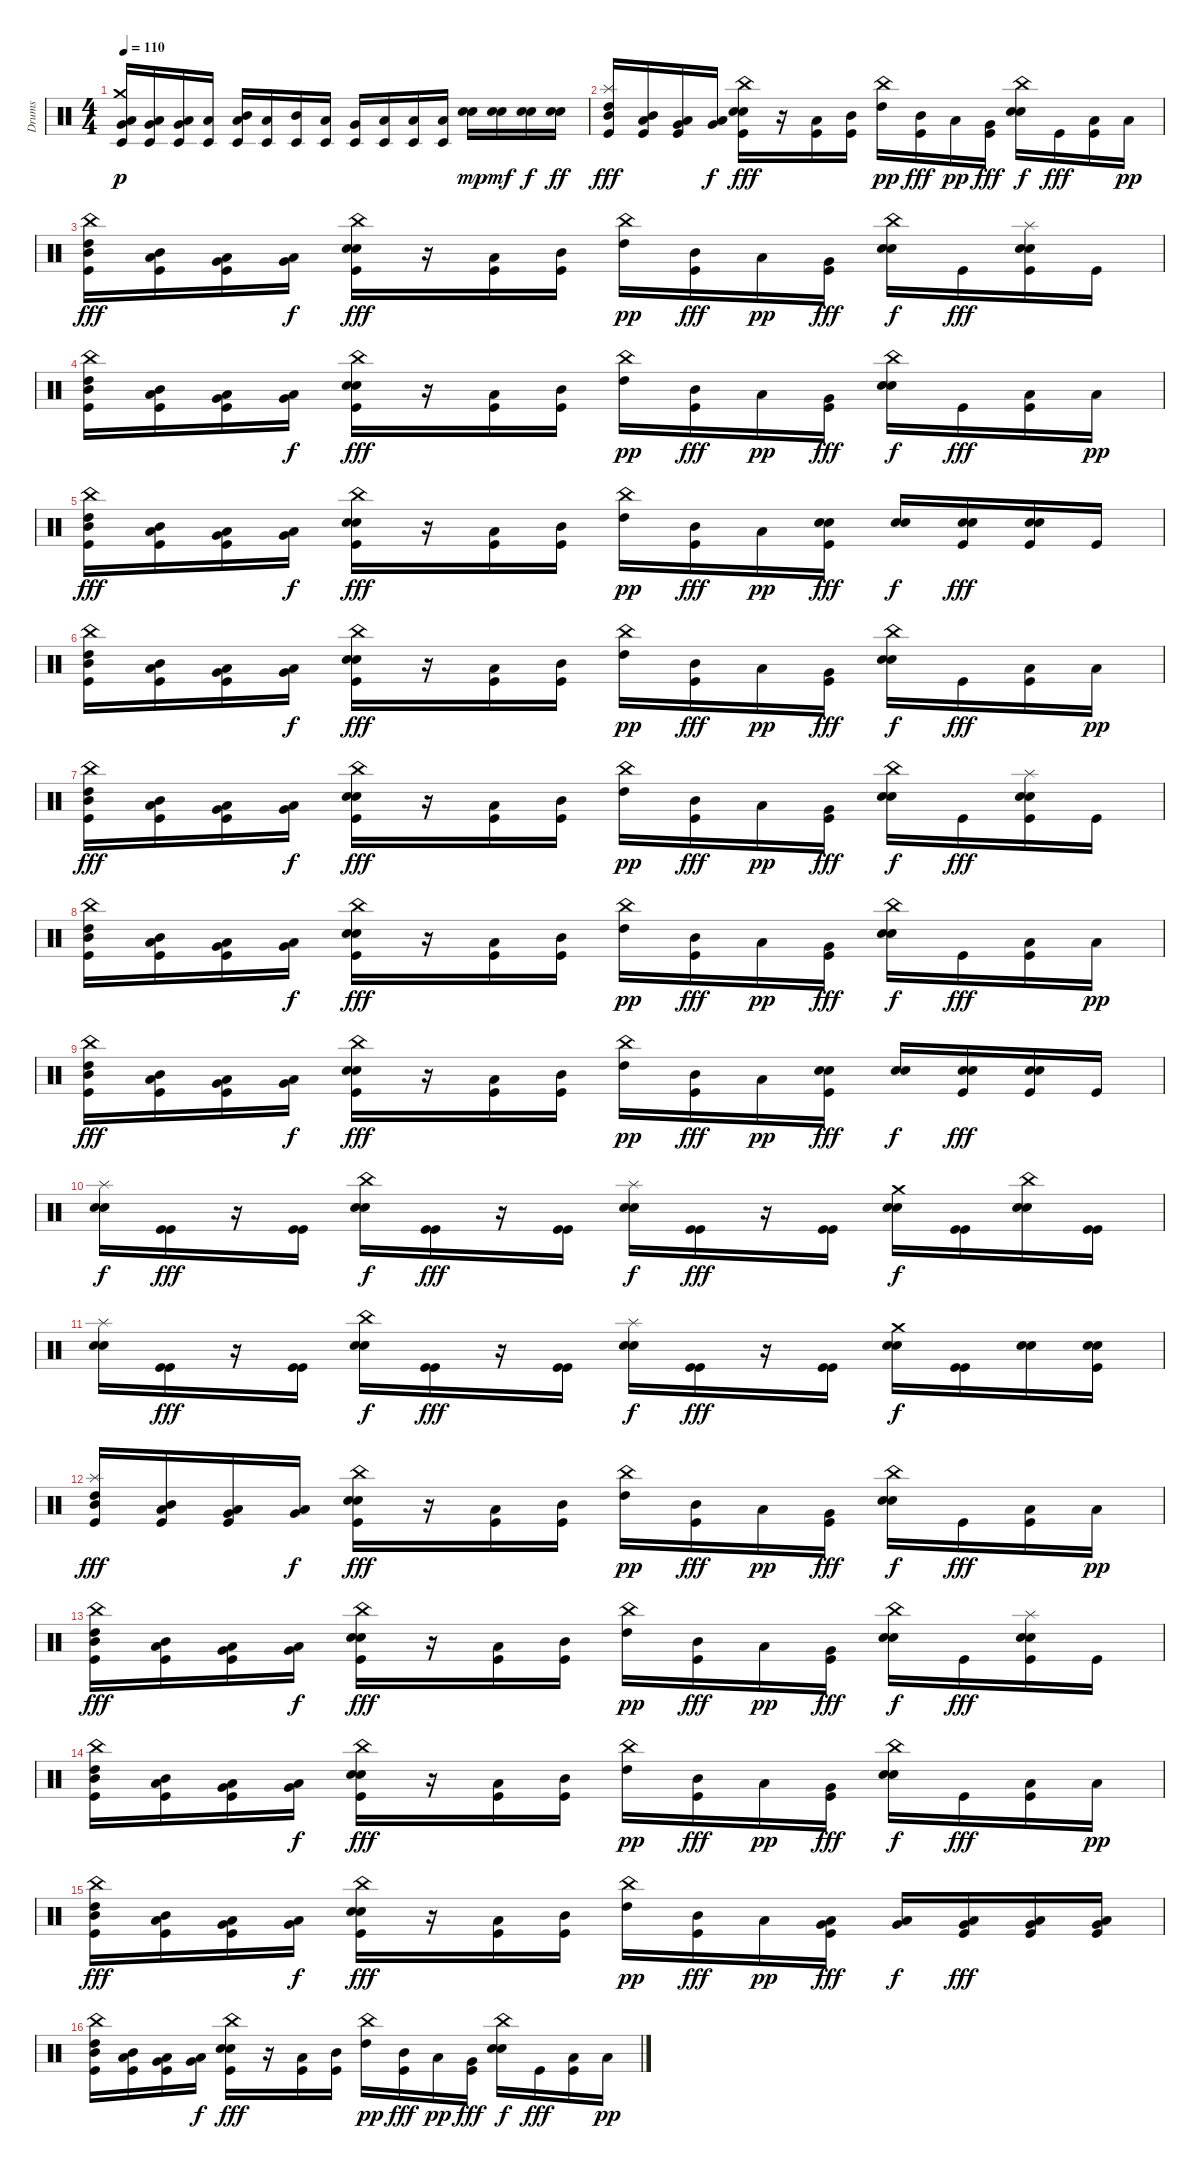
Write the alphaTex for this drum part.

\track ("Drums" "Drums") {instrument percussion}
\staff {score}
\articulation defaults
\ts (4 4)
\tempo 110
\clef neutral
\ks c
("Crash medium (hit)" "Low Floor Tom (hit)" "Very Low Tom (hit)" "Timbale low (hit)").16{dy p} ("Low Floor Tom (hit)" "Very Low Tom (hit)" "Timbale low (hit)").16 ("Low Floor Tom (hit)" "Very Low Tom (hit)" "Timbale low (hit)").16 ("Low Floor Tom (hit)" "Timbale low (hit)").16 ("Low Floor Tom (hit)" "Mid Tom (hit)" "Timbale low (hit)").16 ("Low Floor Tom (hit)" "Timbale low (hit)").16 ("Mid Tom (hit)" "Timbale low (hit)").16 ("Low Tom (hit)" "Timbale low (hit)").16 ("Very Low Tom (hit)" "Timbale low (hit)").16 ("Low Tom (hit)" "Timbale low (hit)").16 ("Low Tom (hit)" "Timbale low (hit)").16 ("Low Tom (hit)" "Timbale low (hit)").16 ("Snare (hit) 2" "Electric Snare (hit)").16{dy mp} ("Snare (hit) 2" "Electric Snare (hit)").16{dy mf} ("Snare (hit) 2" "Electric Snare (hit)").16{dy f} ("Snare (hit) 2" "Electric Snare (hit)").16{dy ff} |
("Splash (hit)" "Mid Tom (hit)" "High Tom (hit)" "Kick (hit)").16{dy fff} ("Low Tom (hit)" "Mid Tom (hit)" "Kick (hit)").16 ("Very Low Tom (hit)" "Low Tom (hit)" "Kick (hit)").16 ("Low Floor Tom (hit)" "Very Low Tom (hit)").16{dy f} ("China (hit)" "Electric Snare (hit)" "Snare (hit) 2" "Kick (hit)").16{dy fff} r.16 ("Low Tom (hit)" "Kick (hit)").16 ("Mid Tom (hit)" "Kick (hit)").16 ("China (hit)" "High Tom (hit)").16{dy pp} ("Mid Tom (hit)" "Kick (hit)").16{dy fff} "Low Tom (hit)".16{dy pp} ("Very Low Tom (hit)" "Kick (hit)").16{dy fff} ("China (hit)" "Snare (hit) 2" "Electric Snare (hit)").16{dy f} "Kick (hit)".16{dy fff} ("Low Tom (hit)" "Kick (hit)").16 "Low Tom (hit)".16{dy pp} |
("China (hit)" "Mid Tom (hit)" "High Tom (hit)" "Kick (hit)").16{dy fff} ("Low Tom (hit)" "Mid Tom (hit)" "Kick (hit)").16 ("Very Low Tom (hit)" "Low Tom (hit)" "Kick (hit)").16 ("Low Floor Tom (hit)" "Very Low Tom (hit)").16{dy f} ("China (hit)" "Electric Snare (hit)" "Snare (hit) 2" "Kick (hit)").16{dy fff} r.16 ("Low Tom (hit)" "Kick (hit)").16 ("Mid Tom (hit)" "Kick (hit)").16 ("China (hit)" "High Tom (hit)").16{dy pp} ("Mid Tom (hit)" "Kick (hit)").16{dy fff} "Low Tom (hit)".16{dy pp} ("Very Low Tom (hit)" "Kick (hit)").16{dy fff} ("China (hit)" "Snare (hit) 2" "Electric Snare (hit)").16{dy f} "Kick (hit)".16{dy fff} ("Splash (hit)" "Snare (hit) 2" "Electric Snare (hit)" "Kick (hit)").16 "Kick (hit)".16 |
("China (hit)" "Mid Tom (hit)" "High Tom (hit)" "Kick (hit)").16 ("Low Tom (hit)" "Mid Tom (hit)" "Kick (hit)").16 ("Very Low Tom (hit)" "Low Tom (hit)" "Kick (hit)").16 ("Low Floor Tom (hit)" "Very Low Tom (hit)").16{dy f} ("China (hit)" "Electric Snare (hit)" "Snare (hit) 2" "Kick (hit)").16{dy fff} r.16 ("Low Tom (hit)" "Kick (hit)").16 ("Mid Tom (hit)" "Kick (hit)").16 ("China (hit)" "High Tom (hit)").16{dy pp} ("Mid Tom (hit)" "Kick (hit)").16{dy fff} "Low Tom (hit)".16{dy pp} ("Very Low Tom (hit)" "Kick (hit)").16{dy fff} ("China (hit)" "Snare (hit) 2" "Electric Snare (hit)").16{dy f} "Kick (hit)".16{dy fff} ("Low Tom (hit)" "Kick (hit)").16 "Low Tom (hit)".16{dy pp} |
("China (hit)" "Mid Tom (hit)" "High Tom (hit)" "Kick (hit)").16{dy fff} ("Low Tom (hit)" "Mid Tom (hit)" "Kick (hit)").16 ("Very Low Tom (hit)" "Low Tom (hit)" "Kick (hit)").16 ("Low Floor Tom (hit)" "Very Low Tom (hit)").16{dy f} ("China (hit)" "Electric Snare (hit)" "Snare (hit) 2" "Kick (hit)").16{dy fff} r.16 ("Low Tom (hit)" "Kick (hit)").16 ("Mid Tom (hit)" "Kick (hit)").16 ("China (hit)" "High Tom (hit)").16{dy pp} ("Mid Tom (hit)" "Kick (hit)").16{dy fff} "Low Tom (hit)".16{dy pp} ("Snare (hit) 2" "Electric Snare (hit)" "Kick (hit)").16{dy fff} ("Snare (hit) 2" "Electric Snare (hit)").16{dy f} ("Snare (hit) 2" "Electric Snare (hit)" "Kick (hit)").16{dy fff} ("Snare (hit) 2" "Electric Snare (hit)" "Kick (hit)").16 "Kick (hit)".16 |
("China (hit)" "Mid Tom (hit)" "High Tom (hit)" "Kick (hit)").16 ("Low Tom (hit)" "Mid Tom (hit)" "Kick (hit)").16 ("Very Low Tom (hit)" "Low Tom (hit)" "Kick (hit)").16 ("Low Floor Tom (hit)" "Very Low Tom (hit)").16{dy f} ("China (hit)" "Electric Snare (hit)" "Snare (hit) 2" "Kick (hit)").16{dy fff} r.16 ("Low Tom (hit)" "Kick (hit)").16 ("Mid Tom (hit)" "Kick (hit)").16 ("China (hit)" "High Tom (hit)").16{dy pp} ("Mid Tom (hit)" "Kick (hit)").16{dy fff} "Low Tom (hit)".16{dy pp} ("Very Low Tom (hit)" "Kick (hit)").16{dy fff} ("China (hit)" "Snare (hit) 2" "Electric Snare (hit)").16{dy f} "Kick (hit)".16{dy fff} ("Low Tom (hit)" "Kick (hit)").16 "Low Tom (hit)".16{dy pp} |
("China (hit)" "Mid Tom (hit)" "High Tom (hit)" "Kick (hit)").16{dy fff} ("Low Tom (hit)" "Mid Tom (hit)" "Kick (hit)").16 ("Very Low Tom (hit)" "Low Tom (hit)" "Kick (hit)").16 ("Low Floor Tom (hit)" "Very Low Tom (hit)").16{dy f} ("China (hit)" "Electric Snare (hit)" "Snare (hit) 2" "Kick (hit)").16{dy fff} r.16 ("Low Tom (hit)" "Kick (hit)").16 ("Mid Tom (hit)" "Kick (hit)").16 ("China (hit)" "High Tom (hit)").16{dy pp} ("Mid Tom (hit)" "Kick (hit)").16{dy fff} "Low Tom (hit)".16{dy pp} ("Very Low Tom (hit)" "Kick (hit)").16{dy fff} ("China (hit)" "Snare (hit) 2" "Electric Snare (hit)").16{dy f} "Kick (hit)".16{dy fff} ("Splash (hit)" "Snare (hit) 2" "Electric Snare (hit)" "Kick (hit)").16 "Kick (hit)".16 |
("China (hit)" "Mid Tom (hit)" "High Tom (hit)" "Kick (hit)").16 ("Low Tom (hit)" "Mid Tom (hit)" "Kick (hit)").16 ("Very Low Tom (hit)" "Low Tom (hit)" "Kick (hit)").16 ("Low Floor Tom (hit)" "Very Low Tom (hit)").16{dy f} ("China (hit)" "Electric Snare (hit)" "Snare (hit) 2" "Kick (hit)").16{dy fff} r.16 ("Low Tom (hit)" "Kick (hit)").16 ("Mid Tom (hit)" "Kick (hit)").16 ("China (hit)" "High Tom (hit)").16{dy pp} ("Mid Tom (hit)" "Kick (hit)").16{dy fff} "Low Tom (hit)".16{dy pp} ("Very Low Tom (hit)" "Kick (hit)").16{dy fff} ("China (hit)" "Snare (hit) 2" "Electric Snare (hit)").16{dy f} "Kick (hit)".16{dy fff} ("Low Tom (hit)" "Kick (hit)").16 "Low Tom (hit)".16{dy pp} |
("China (hit)" "Mid Tom (hit)" "High Tom (hit)" "Kick (hit)").16{dy fff} ("Low Tom (hit)" "Mid Tom (hit)" "Kick (hit)").16 ("Very Low Tom (hit)" "Low Tom (hit)" "Kick (hit)").16 ("Low Floor Tom (hit)" "Very Low Tom (hit)").16{dy f} ("China (hit)" "Electric Snare (hit)" "Snare (hit) 2" "Kick (hit)").16{dy fff} r.16 ("Low Tom (hit)" "Kick (hit)").16 ("Mid Tom (hit)" "Kick (hit)").16 ("China (hit)" "High Tom (hit)").16{dy pp} ("Mid Tom (hit)" "Kick (hit)").16{dy fff} "Low Tom (hit)".16{dy pp} ("Snare (hit) 2" "Electric Snare (hit)" "Kick (hit)").16{dy fff} ("Snare (hit) 2" "Electric Snare (hit)").16{dy f} ("Snare (hit) 2" "Electric Snare (hit)" "Kick (hit)").16{dy fff} ("Snare (hit) 2" "Electric Snare (hit)" "Kick (hit)").16 "Kick (hit)".16 |
("Splash (hit)" "Snare (hit) 2" "Electric Snare (hit)").16{dy f} ("Kick (hit)" "Kick (hit)").16{dy fff} r.16 ("Kick (hit)" "Kick (hit)").16 ("China (hit)" "Snare (hit) 2" "Electric Snare (hit)").16{dy f} ("Kick (hit)" "Kick (hit)").16{dy fff} r.16 ("Kick (hit)" "Kick (hit)").16 ("Splash (hit)" "Snare (hit) 2" "Electric Snare (hit)").16{dy f} ("Kick (hit)" "Kick (hit)").16{dy fff} r.16 ("Kick (hit)" "Kick (hit)").16 ("Crash medium (hit)" "Snare (hit) 2" "Electric Snare (hit)").16{dy f} ("Kick (hit)" "Kick (hit)").16 ("China (hit)" "Snare (hit) 2" "Electric Snare (hit)").16 ("Kick (hit)" "Kick (hit)").16 |
("Splash (hit)" "Snare (hit) 2" "Electric Snare (hit)").16 ("Kick (hit)" "Kick (hit)").16{dy fff} r.16 ("Kick (hit)" "Kick (hit)").16 ("China (hit)" "Snare (hit) 2" "Electric Snare (hit)").16{dy f} ("Kick (hit)" "Kick (hit)").16{dy fff} r.16 ("Kick (hit)" "Kick (hit)").16 ("Splash (hit)" "Snare (hit) 2" "Electric Snare (hit)").16{dy f} ("Kick (hit)" "Kick (hit)").16{dy fff} r.16 ("Kick (hit)" "Kick (hit)").16 ("Crash medium (hit)" "Snare (hit) 2" "Electric Snare (hit)").16{dy f} ("Kick (hit)" "Kick (hit)").16 ("Snare (hit) 2" "Electric Snare (hit)").16 ("Snare (hit) 2" "Electric Snare (hit)" "Kick (hit)").16 |
("Splash (hit)" "Mid Tom (hit)" "High Tom (hit)" "Kick (hit)").16{dy fff} ("Low Tom (hit)" "Mid Tom (hit)" "Kick (hit)").16 ("Very Low Tom (hit)" "Low Tom (hit)" "Kick (hit)").16 ("Low Floor Tom (hit)" "Very Low Tom (hit)").16{dy f} ("China (hit)" "Electric Snare (hit)" "Snare (hit) 2" "Kick (hit)").16{dy fff} r.16 ("Low Tom (hit)" "Kick (hit)").16 ("Mid Tom (hit)" "Kick (hit)").16 ("China (hit)" "High Tom (hit)").16{dy pp} ("Mid Tom (hit)" "Kick (hit)").16{dy fff} "Low Tom (hit)".16{dy pp} ("Very Low Tom (hit)" "Kick (hit)").16{dy fff} ("China (hit)" "Snare (hit) 2" "Electric Snare (hit)").16{dy f} "Kick (hit)".16{dy fff} ("Low Tom (hit)" "Kick (hit)").16 "Low Tom (hit)".16{dy pp} |
("China (hit)" "Mid Tom (hit)" "High Tom (hit)" "Kick (hit)").16{dy fff} ("Low Tom (hit)" "Mid Tom (hit)" "Kick (hit)").16 ("Very Low Tom (hit)" "Low Tom (hit)" "Kick (hit)").16 ("Low Floor Tom (hit)" "Very Low Tom (hit)").16{dy f} ("China (hit)" "Electric Snare (hit)" "Snare (hit) 2" "Kick (hit)").16{dy fff} r.16 ("Low Tom (hit)" "Kick (hit)").16 ("Mid Tom (hit)" "Kick (hit)").16 ("China (hit)" "High Tom (hit)").16{dy pp} ("Mid Tom (hit)" "Kick (hit)").16{dy fff} "Low Tom (hit)".16{dy pp} ("Very Low Tom (hit)" "Kick (hit)").16{dy fff} ("China (hit)" "Snare (hit) 2" "Electric Snare (hit)").16{dy f} "Kick (hit)".16{dy fff} ("Splash (hit)" "Snare (hit) 2" "Electric Snare (hit)" "Kick (hit)").16 "Kick (hit)".16 |
("China (hit)" "Mid Tom (hit)" "High Tom (hit)" "Kick (hit)").16 ("Low Tom (hit)" "Mid Tom (hit)" "Kick (hit)").16 ("Very Low Tom (hit)" "Low Tom (hit)" "Kick (hit)").16 ("Low Floor Tom (hit)" "Very Low Tom (hit)").16{dy f} ("China (hit)" "Electric Snare (hit)" "Snare (hit) 2" "Kick (hit)").16{dy fff} r.16 ("Low Tom (hit)" "Kick (hit)").16 ("Mid Tom (hit)" "Kick (hit)").16 ("China (hit)" "High Tom (hit)").16{dy pp} ("Mid Tom (hit)" "Kick (hit)").16{dy fff} "Low Tom (hit)".16{dy pp} ("Very Low Tom (hit)" "Kick (hit)").16{dy fff} ("China (hit)" "Snare (hit) 2" "Electric Snare (hit)").16{dy f} "Kick (hit)".16{dy fff} ("Low Tom (hit)" "Kick (hit)").16 "Low Tom (hit)".16{dy pp} |
("China (hit)" "Mid Tom (hit)" "High Tom (hit)" "Kick (hit)").16{dy fff} ("Low Tom (hit)" "Mid Tom (hit)" "Kick (hit)").16 ("Very Low Tom (hit)" "Low Tom (hit)" "Kick (hit)").16 ("Low Floor Tom (hit)" "Very Low Tom (hit)").16{dy f} ("China (hit)" "Electric Snare (hit)" "Snare (hit) 2" "Kick (hit)").16{dy fff} r.16 ("Low Tom (hit)" "Kick (hit)").16 ("Mid Tom (hit)" "Kick (hit)").16 ("China (hit)" "High Tom (hit)").16{dy pp} ("Mid Tom (hit)" "Kick (hit)").16{dy fff} "Low Tom (hit)".16{dy pp} ("Very Low Tom (hit)" "Low Tom (hit)" "Kick (hit)").16{dy fff} ("Very Low Tom (hit)" "Low Tom (hit)").16{dy f} ("Very Low Tom (hit)" "Low Tom (hit)" "Kick (hit)").16{dy fff} ("Very Low Tom (hit)" "Low Tom (hit)" "Kick (hit)").16 ("Very Low Tom (hit)" "Low Tom (hit)" "Kick (hit)").16 |
("China (hit)" "Mid Tom (hit)" "High Tom (hit)" "Kick (hit)").16 ("Low Tom (hit)" "Mid Tom (hit)" "Kick (hit)").16 ("Very Low Tom (hit)" "Low Tom (hit)" "Kick (hit)").16 ("Low Floor Tom (hit)" "Very Low Tom (hit)").16{dy f} ("China (hit)" "Electric Snare (hit)" "Snare (hit) 2" "Kick (hit)").16{dy fff} r.16 ("Low Tom (hit)" "Kick (hit)").16 ("Mid Tom (hit)" "Kick (hit)").16 ("China (hit)" "High Tom (hit)").16{dy pp} ("Mid Tom (hit)" "Kick (hit)").16{dy fff} "Low Tom (hit)".16{dy pp} ("Very Low Tom (hit)" "Kick (hit)").16{dy fff} ("China (hit)" "Snare (hit) 2" "Electric Snare (hit)").16{dy f} "Kick (hit)".16{dy fff} ("Low Tom (hit)" "Kick (hit)").16 "Low Tom (hit)".16{dy pp}
